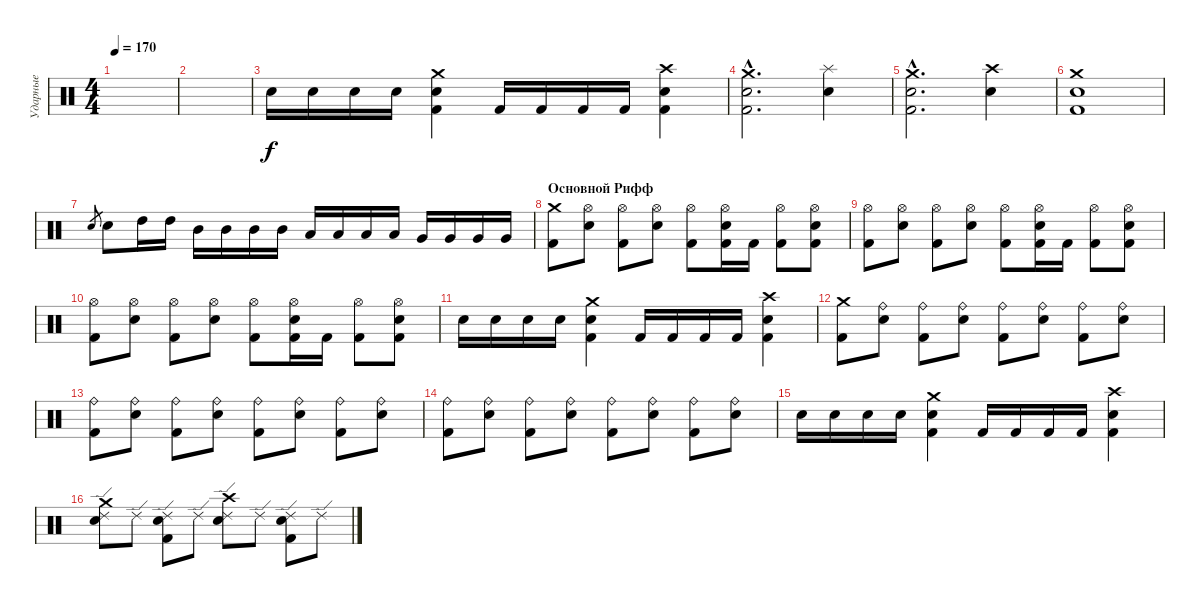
\track ("Ударные" "Ударные") {instrument percussion}
\staff {score}
\articulation defaults
\ts (4 4)
\tempo 170
\clef neutral
\ks c
|
|
"Electric Snare (hit)".16 "Electric Snare (hit)".16 "Electric Snare (hit)".16 "Electric Snare (hit)".16 ("Electric Snare (hit)" "Kick (hit) 2" "Crash medium (hit)").4 "Kick (hit) 2".16 "Kick (hit) 2".16 "Kick (hit) 2".16 "Kick (hit) 2".16 ("Electric Snare (hit)" "Kick (hit) 2" "Crash high (hit)").4 |
("Electric Snare (hit)"{hac} "Kick (hit) 2"{hac} "Crash medium (hit)"{hac}).2{d} ("Electric Snare (hit)" "Splash (hit)").4 |
("Electric Snare (hit)"{hac} "Kick (hit) 2"{hac} "Crash medium (hit)"{hac}).2{d} ("Electric Snare (hit)" "Crash high (hit)").4 |
("Electric Snare (hit)" "Kick (hit) 2" "Crash medium (hit)").1 |
"Electric Snare (hit)".8{gr} "Electric Snare (hit)".8 "High Tom (hit)".16 "High Tom (hit)".16 "Mid Tom (hit)".16 "Mid Tom (hit)".16 "Mid Tom (hit)".16 "Mid Tom (hit)".16 "Low Tom (hit)".16 "Low Tom (hit)".16 "Low Tom (hit)".16 "Low Tom (hit)".16 "Very Low Tom (hit)".16 "Very Low Tom (hit)".16 "Very Low Tom (hit)".16 "Very Low Tom (hit)".16 |
\section ("" "Основной Рифф")
("Crash medium (hit)" "Kick (hit) 2").8 ("Hi-Hat (open)" "Electric Snare (hit)").8 ("Hi-Hat (open)" "Kick (hit) 2").8 ("Hi-Hat (open)" "Electric Snare (hit)").8 ("Hi-Hat (open)" "Kick (hit) 2").8 ("Hi-Hat (open)" "Kick (hit) 2" "Electric Snare (hit)").16 "Kick (hit) 2".16 ("Hi-Hat (open)" "Kick (hit) 2").8 ("Hi-Hat (open)" "Kick (hit) 2" "Electric Snare (hit)").8 |
("Hi-Hat (open)" "Kick (hit) 2").8 ("Hi-Hat (open)" "Electric Snare (hit)").8 ("Hi-Hat (open)" "Kick (hit) 2").8 ("Hi-Hat (open)" "Electric Snare (hit)").8 ("Hi-Hat (open)" "Kick (hit) 2").8 ("Hi-Hat (open)" "Kick (hit) 2" "Electric Snare (hit)").16 "Kick (hit) 2".16 ("Hi-Hat (open)" "Kick (hit) 2").8 ("Hi-Hat (open)" "Kick (hit) 2" "Electric Snare (hit)").8 |
("Hi-Hat (open)" "Kick (hit) 2").8 ("Hi-Hat (open)" "Electric Snare (hit)").8 ("Hi-Hat (open)" "Kick (hit) 2").8 ("Hi-Hat (open)" "Electric Snare (hit)").8 ("Hi-Hat (open)" "Kick (hit) 2").8 ("Hi-Hat (open)" "Kick (hit) 2" "Electric Snare (hit)").16 "Kick (hit) 2".16 ("Hi-Hat (open)" "Kick (hit) 2").8 ("Hi-Hat (open)" "Kick (hit) 2" "Electric Snare (hit)").8 |
"Electric Snare (hit)".16 "Electric Snare (hit)".16 "Electric Snare (hit)".16 "Electric Snare (hit)".16 ("Electric Snare (hit)" "Kick (hit) 2" "Crash medium (hit)").4 "Kick (hit) 2".16 "Kick (hit) 2".16 "Kick (hit) 2".16 "Kick (hit) 2".16 ("Electric Snare (hit)" "Kick (hit) 2" "Crash high (hit)").4 |
("Crash medium (hit)" "Kick (hit) 2").8 ("Ride (bell)" "Electric Snare (hit)").8 ("Ride (bell)" "Kick (hit) 2").8 ("Ride (bell)" "Electric Snare (hit)").8 ("Ride (bell)" "Kick (hit) 2").8 ("Ride (bell)" "Electric Snare (hit)").8 ("Ride (bell)" "Kick (hit) 2").8 ("Ride (bell)" "Electric Snare (hit)").8 |
("Ride (bell)" "Kick (hit) 2").8 ("Ride (bell)" "Electric Snare (hit)").8 ("Ride (bell)" "Kick (hit) 2").8 ("Ride (bell)" "Electric Snare (hit)").8 ("Ride (bell)" "Kick (hit) 2").8 ("Ride (bell)" "Electric Snare (hit)").8 ("Ride (bell)" "Kick (hit) 2").8 ("Ride (bell)" "Electric Snare (hit)").8 |
("Ride (bell)" "Kick (hit) 2").8 ("Ride (bell)" "Electric Snare (hit)").8 ("Ride (bell)" "Kick (hit) 2").8 ("Ride (bell)" "Electric Snare (hit)").8 ("Ride (bell)" "Kick (hit) 2").8 ("Ride (bell)" "Electric Snare (hit)").8 ("Ride (bell)" "Kick (hit) 2").8 ("Ride (bell)" "Electric Snare (hit)").8 |
"Electric Snare (hit)".16 "Electric Snare (hit)".16 "Electric Snare (hit)".16 "Electric Snare (hit)".16 ("Electric Snare (hit)" "Kick (hit) 2" "Crash medium (hit)").4 "Kick (hit) 2".16 "Kick (hit) 2".16 "Kick (hit) 2".16 "Kick (hit) 2".16 ("Electric Snare (hit)" "Kick (hit) 2" "Crash high (hit)").4 |
("Ride (edge) 2" "Crash medium (hit)" "Electric Snare (hit)").8 "Ride (edge) 2".8 ("Ride (edge) 2" "Kick (hit) 2" "Electric Snare (hit)").8 "Ride (edge) 2".8 ("Ride (edge) 2" "Electric Snare (hit)" "Crash high (hit)").8 "Ride (edge) 2".8 ("Ride (edge) 2" "Kick (hit) 2" "Electric Snare (hit)").8 "Ride (edge) 2".8
